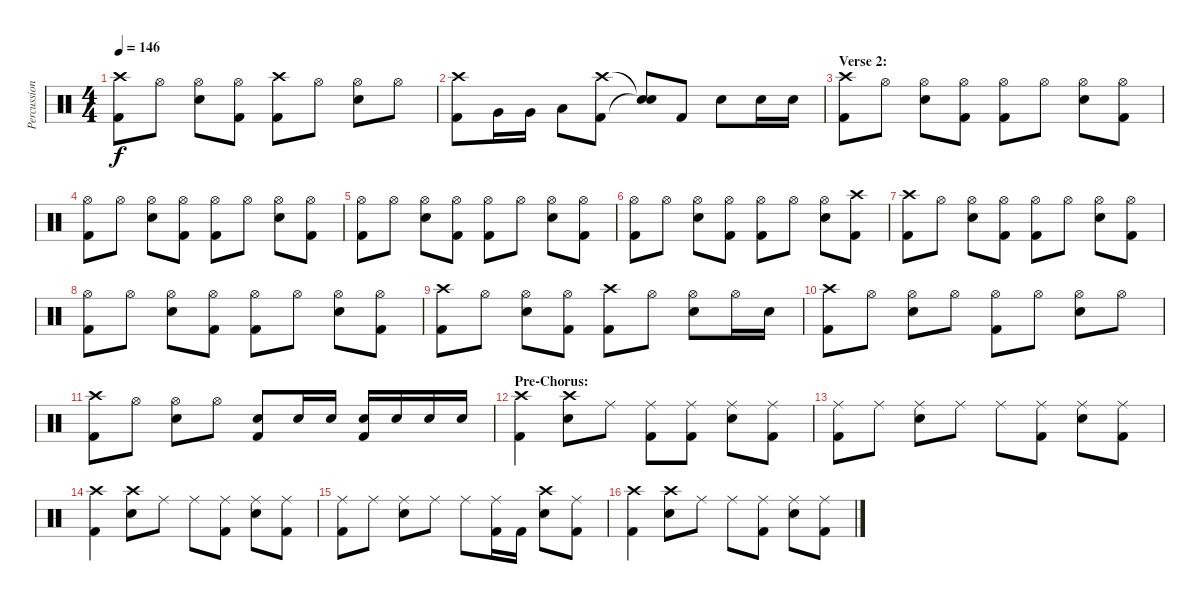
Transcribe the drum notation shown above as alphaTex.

\track ("Percussion" "Percussion") {instrument percussion}
\staff {score}
\articulation defaults
\ts (4 4)
\tempo 146
\clef neutral
\ks c
("Crash high (hit)" "Kick (hit) 2").8{dy f} "Hi-Hat (open)".8 ("Hi-Hat (open)" "Snare (hit) 2").8 ("Hi-Hat (open)" "Kick (hit) 2").8 ("Crash high (hit)" "Kick (hit) 2").8 "Hi-Hat (open)".8 ("Hi-Hat (open)" "Snare (hit) 2").8 "Hi-Hat (open)".8 |
("Crash high (hit)" "Kick (hit) 2").8 "Very Low Tom (hit)".16 "Very Low Tom (hit)".16 "Low Floor Tom (hit)".8 ("Crash high (hit)" "Kick (hit) 2").8 ("Snare (hit)"{t} "Snare (hit)"{t}).8 "Kick (hit) 2".8 "Snare (hit) 2".8 "Snare (hit) 2".16 "Snare (hit) 2".16 |
\section ("" "Verse 2:")
("Crash high (hit)" "Kick (hit) 2").8 "Hi-Hat (open)".8 ("Hi-Hat (open)" "Snare (hit) 2").8 ("Hi-Hat (open)" "Kick (hit) 2").8 ("Hi-Hat (open)" "Kick (hit) 2").8 "Hi-Hat (open)".8 ("Hi-Hat (open)" "Snare (hit) 2").8 ("Hi-Hat (open)" "Kick (hit) 2").8 |
("Hi-Hat (open)" "Kick (hit) 2").8 "Hi-Hat (open)".8 ("Hi-Hat (open)" "Snare (hit) 2").8 ("Hi-Hat (open)" "Kick (hit) 2").8 ("Hi-Hat (open)" "Kick (hit) 2").8 "Hi-Hat (open)".8 ("Hi-Hat (open)" "Snare (hit) 2").8 ("Hi-Hat (open)" "Kick (hit) 2").8 |
("Hi-Hat (open)" "Kick (hit) 2").8 "Hi-Hat (open)".8 ("Hi-Hat (open)" "Snare (hit) 2").8 ("Hi-Hat (open)" "Kick (hit) 2").8 ("Hi-Hat (open)" "Kick (hit) 2").8 "Hi-Hat (open)".8 ("Hi-Hat (open)" "Snare (hit) 2").8 ("Hi-Hat (open)" "Kick (hit) 2").8 |
("Hi-Hat (open)" "Kick (hit) 2").8 "Hi-Hat (open)".8 ("Hi-Hat (open)" "Snare (hit) 2").8 ("Hi-Hat (open)" "Kick (hit) 2").8 ("Hi-Hat (open)" "Kick (hit) 2").8 "Hi-Hat (open)".8 ("Hi-Hat (open)" "Snare (hit) 2").8 ("Crash high (hit)" "Kick (hit) 2").8 |
("Crash high (hit)" "Kick (hit) 2").8 "Hi-Hat (open)".8 ("Hi-Hat (open)" "Snare (hit) 2").8 ("Hi-Hat (open)" "Kick (hit) 2").8 ("Hi-Hat (open)" "Kick (hit) 2").8 "Hi-Hat (open)".8 ("Hi-Hat (open)" "Snare (hit) 2").8 ("Hi-Hat (open)" "Kick (hit) 2").8 |
("Hi-Hat (open)" "Kick (hit) 2").8 "Hi-Hat (open)".8 ("Hi-Hat (open)" "Snare (hit) 2").8 ("Hi-Hat (open)" "Kick (hit) 2").8 ("Hi-Hat (open)" "Kick (hit) 2").8 "Hi-Hat (open)".8 ("Hi-Hat (open)" "Snare (hit) 2").8 ("Hi-Hat (open)" "Kick (hit) 2").8 |
("Crash high (hit)" "Kick (hit) 2").8 "Hi-Hat (open)".8 ("Hi-Hat (open)" "Snare (hit) 2").8 ("Hi-Hat (open)" "Kick (hit) 2").8 ("Crash high (hit)" "Kick (hit) 2").8 "Hi-Hat (open)".8 ("Hi-Hat (open)" "Snare (hit) 2").8 "Hi-Hat (open)".16 "Snare (hit) 2".16 |
("Crash high (hit)" "Kick (hit) 2").8 "Hi-Hat (open)".8 ("Hi-Hat (open)" "Snare (hit) 2").8 "Hi-Hat (open)".8 ("Hi-Hat (open)" "Kick (hit) 2").8 "Hi-Hat (open)".8 ("Hi-Hat (open)" "Snare (hit) 2").8 "Hi-Hat (open)".8 |
("Crash high (hit)" "Kick (hit) 2").8 "Hi-Hat (open)".8 ("Hi-Hat (open)" "Snare (hit) 2").8 "Hi-Hat (open)".8 ("Snare (hit) 2" "Kick (hit) 2").8 "Snare (hit) 2".16 "Snare (hit) 2".16 ("Snare (hit) 2" "Kick (hit) 2").16 "Snare (hit) 2".16 "Snare (hit) 2".16 "Snare (hit) 2".16 |
\section ("" "Pre-Chorus:")
("Crash high (hit)" "Kick (hit) 2").4 ("Crash high (hit)" "Snare (hit) 2").8 "Ride (middle)".8 ("Ride (middle)" "Kick (hit) 2").8 ("Ride (middle)" "Kick (hit) 2").8 ("Ride (middle)" "Snare (hit) 2").8 ("Ride (middle)" "Kick (hit) 2").8 |
("Ride (middle)" "Kick (hit) 2").8 "Ride (middle)".8 ("Ride (middle)" "Snare (hit) 2").8 "Ride (middle)".8 "Ride (middle)".8 ("Ride (middle)" "Kick (hit) 2").8 ("Ride (middle)" "Snare (hit) 2").8 ("Ride (middle)" "Kick (hit) 2").8 |
("Crash high (hit)" "Kick (hit) 2").4 ("Crash high (hit)" "Snare (hit) 2").8 "Ride (middle)".8 "Ride (middle)".8 ("Ride (middle)" "Kick (hit) 2").8 ("Ride (middle)" "Snare (hit) 2").8 ("Ride (middle)" "Kick (hit) 2").8 |
("Ride (middle)" "Kick (hit) 2").8 "Ride (middle)".8 ("Ride (middle)" "Snare (hit) 2").8 "Ride (middle)".8 "Ride (middle)".8 ("Ride (middle)" "Kick (hit) 2").16 "Kick (hit) 2".16 ("Crash high (hit)" "Snare (hit) 2").8 ("Ride (middle)" "Kick (hit) 2").8 |
("Crash high (hit)" "Kick (hit) 2").4 ("Crash high (hit)" "Snare (hit) 2").8 "Ride (middle)".8 "Ride (middle)".8 ("Ride (middle)" "Kick (hit) 2").8 ("Ride (middle)" "Snare (hit) 2").8 ("Ride (middle)" "Kick (hit) 2").8
